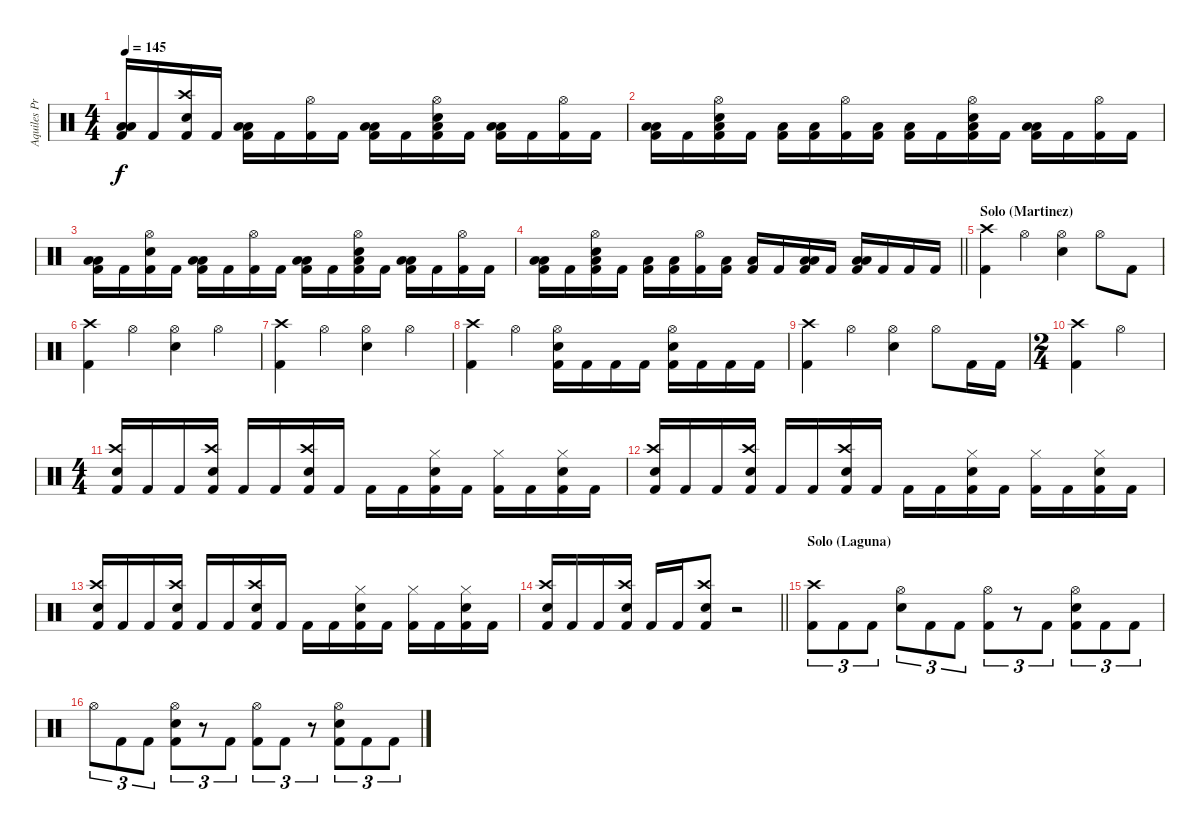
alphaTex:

\track ("Aquiles Priester" "Aquiles Pr") {instrument percussion}
\staff {score}
\articulation defaults
\ts (4 4)
\tempo 145
\clef neutral
\ks c
("Low Tom (hit)" "Low Floor Tom (hit)" "Kick (hit) 2").16{dy f} "Kick (hit) 2".16 ("Crash high (hit)" "Electric Snare (hit)" "Kick (hit) 2").16 "Kick (hit) 2".16 ("Low Tom (hit)" "Low Floor Tom (hit)" "Kick (hit) 2").16 "Kick (hit) 2".16 ("Hi-Hat (open)" "Kick (hit) 2").16 "Kick (hit) 2".16 ("Low Tom (hit)" "Low Floor Tom (hit)" "Kick (hit) 2").16 "Kick (hit) 2".16 ("Hi-Hat (open)" "Electric Snare (hit)" "Low Floor Tom (hit)" "Kick (hit) 2").16 "Kick (hit) 2".16 ("Low Tom (hit)" "Low Floor Tom (hit)" "Kick (hit) 2").16 "Kick (hit) 2".16 ("Hi-Hat (open)" "Kick (hit) 2").16 "Kick (hit) 2".16 |
("Low Tom (hit)" "Low Floor Tom (hit)" "Kick (hit) 2").16 "Kick (hit) 2".16 ("Hi-Hat (open)" "Electric Snare (hit)" "Low Floor Tom (hit)" "Kick (hit) 2").16 "Kick (hit) 2".16 ("Low Tom (hit)" "Kick (hit) 2").16 ("Low Floor Tom (hit)" "Kick (hit) 2").16 ("Hi-Hat (open)" "Kick (hit) 2").16 ("Low Tom (hit)" "Kick (hit) 2").16 ("Low Floor Tom (hit)" "Kick (hit) 2").16 "Kick (hit) 2".16 ("Hi-Hat (open)" "Electric Snare (hit)" "Low Floor Tom (hit)" "Kick (hit) 2").16 "Kick (hit) 2".16 ("Low Tom (hit)" "Low Floor Tom (hit)" "Kick (hit) 2").16 "Kick (hit) 2".16 ("Hi-Hat (open)" "Kick (hit) 2").16 "Kick (hit) 2".16 |
("Low Tom (hit)" "Low Floor Tom (hit)" "Kick (hit) 2").16 "Kick (hit) 2".16 ("Hi-Hat (open)" "Electric Snare (hit)" "Kick (hit) 2").16 "Kick (hit) 2".16 ("Low Tom (hit)" "Low Floor Tom (hit)" "Kick (hit) 2").16 "Kick (hit) 2".16 ("Hi-Hat (open)" "Kick (hit) 2").16 "Kick (hit) 2".16 ("Low Tom (hit)" "Low Floor Tom (hit)" "Kick (hit) 2").16 "Kick (hit) 2".16 ("Hi-Hat (open)" "Electric Snare (hit)" "Low Floor Tom (hit)" "Kick (hit) 2").16 "Kick (hit) 2".16 ("Low Tom (hit)" "Low Floor Tom (hit)" "Kick (hit) 2").16 "Kick (hit) 2".16 ("Hi-Hat (open)" "Kick (hit) 2").16 "Kick (hit) 2".16 |
\barLineRight lightlight
("Low Tom (hit)" "Low Floor Tom (hit)" "Kick (hit) 2").16 "Kick (hit) 2".16 ("Hi-Hat (open)" "Electric Snare (hit)" "Low Floor Tom (hit)" "Kick (hit) 2").16 "Kick (hit) 2".16 ("Low Tom (hit)" "Kick (hit) 2").16 ("Low Floor Tom (hit)" "Kick (hit) 2").16 ("Hi-Hat (open)" "Kick (hit) 2").16 ("Low Tom (hit)" "Kick (hit) 2").16 ("Low Floor Tom (hit)" "Kick (hit) 2").16 "Kick (hit) 2".16 ("Low Tom (hit)" "Low Floor Tom (hit)" "Kick (hit) 2").16 "Kick (hit) 2".16 ("Low Tom (hit)" "Low Floor Tom (hit)" "Kick (hit) 2").16 "Kick (hit) 2".16 "Kick (hit) 2".16 "Kick (hit) 2".16 |
\section ("" "Solo (Martinez)")
("Crash high (hit)" "Kick (hit) 2").4 "Hi-Hat (open)".4 ("Hi-Hat (open)" "Electric Snare (hit)").4 "Hi-Hat (open)".8 "Kick (hit) 2".8 |
("Crash high (hit)" "Kick (hit) 2").4 "Hi-Hat (open)".4 ("Hi-Hat (open)" "Electric Snare (hit)").4 "Hi-Hat (open)".4 |
("Crash high (hit)" "Kick (hit) 2").4 "Hi-Hat (open)".4 ("Hi-Hat (open)" "Electric Snare (hit)").4 "Hi-Hat (open)".4 |
("Crash high (hit)" "Kick (hit) 2").4 "Hi-Hat (open)".4 ("Hi-Hat (open)" "Electric Snare (hit)" "Kick (hit) 2").16 "Kick (hit) 2".16 "Kick (hit) 2".16 "Kick (hit) 2".16 ("Hi-Hat (open)" "Electric Snare (hit)" "Kick (hit) 2").16 "Kick (hit) 2".16 "Kick (hit) 2".16 "Kick (hit) 2".16 |
("Crash high (hit)" "Kick (hit) 2").4 "Hi-Hat (open)".4 ("Hi-Hat (open)" "Electric Snare (hit)").4 "Hi-Hat (open)".8 "Kick (hit) 2".16 "Kick (hit) 2".16 |
\ts (2 4)
("Crash high (hit)" "Kick (hit) 2").4 "Hi-Hat (open)".4 |
\ts (4 4)
("Crash high (hit)" "Electric Snare (hit)" "Kick (hit) 2").16 "Kick (hit) 2".16 "Kick (hit) 2".16 ("Crash high (hit)" "Electric Snare (hit)" "Kick (hit) 2").16 "Kick (hit) 2".16 "Kick (hit) 2".16 ("Crash high (hit)" "Electric Snare (hit)" "Kick (hit) 2").16 "Kick (hit) 2".16 "Kick (hit) 2".16 "Kick (hit) 2".16 ("Hi-Hat (closed)" "Electric Snare (hit)" "Kick (hit) 2").16 "Kick (hit) 2".16 ("Hi-Hat (closed)" "Kick (hit) 2").16 "Kick (hit) 2".16 ("Hi-Hat (closed)" "Electric Snare (hit)" "Kick (hit) 2").16 "Kick (hit) 2".16 |
("Crash high (hit)" "Electric Snare (hit)" "Kick (hit) 2").16 "Kick (hit) 2".16 "Kick (hit) 2".16 ("Crash high (hit)" "Electric Snare (hit)" "Kick (hit) 2").16 "Kick (hit) 2".16 "Kick (hit) 2".16 ("Crash high (hit)" "Electric Snare (hit)" "Kick (hit) 2").16 "Kick (hit) 2".16 "Kick (hit) 2".16 "Kick (hit) 2".16 ("Hi-Hat (closed)" "Electric Snare (hit)" "Kick (hit) 2").16 "Kick (hit) 2".16 ("Hi-Hat (closed)" "Kick (hit) 2").16 "Kick (hit) 2".16 ("Hi-Hat (closed)" "Electric Snare (hit)" "Kick (hit) 2").16 "Kick (hit) 2".16 |
("Crash high (hit)" "Electric Snare (hit)" "Kick (hit) 2").16 "Kick (hit) 2".16 "Kick (hit) 2".16 ("Crash high (hit)" "Electric Snare (hit)" "Kick (hit) 2").16 "Kick (hit) 2".16 "Kick (hit) 2".16 ("Crash high (hit)" "Electric Snare (hit)" "Kick (hit) 2").16 "Kick (hit) 2".16 "Kick (hit) 2".16 "Kick (hit) 2".16 ("Hi-Hat (closed)" "Electric Snare (hit)" "Kick (hit) 2").16 "Kick (hit) 2".16 ("Hi-Hat (closed)" "Kick (hit) 2").16 "Kick (hit) 2".16 ("Hi-Hat (closed)" "Electric Snare (hit)" "Kick (hit) 2").16 "Kick (hit) 2".16 |
\barLineRight lightlight
("Crash high (hit)" "Electric Snare (hit)" "Kick (hit) 2").16 "Kick (hit) 2".16 "Kick (hit) 2".16 ("Crash high (hit)" "Electric Snare (hit)" "Kick (hit) 2").16 "Kick (hit) 2".16 "Kick (hit) 2".16 ("Crash high (hit)" "Electric Snare (hit)" "Kick (hit) 2").8 r.2 |
\section ("" "Solo (Laguna)")
("Crash high (hit)" "Kick (hit) 2").8{tu (3 2)} "Kick (hit) 2".8{tu (3 2)} "Kick (hit) 2".8{tu (3 2)} ("Hi-Hat (open)" "Electric Snare (hit)").8{tu (3 2)} "Kick (hit) 2".8{tu (3 2)} "Kick (hit) 2".8{tu (3 2)} ("Hi-Hat (open)" "Kick (hit) 2").8{tu (3 2)} r.8{tu (3 2)} "Kick (hit) 2".8{tu (3 2)} ("Hi-Hat (open)" "Electric Snare (hit)" "Kick (hit) 2").8{tu (3 2)} "Kick (hit) 2".8{tu (3 2)} "Kick (hit) 2".8{tu (3 2)} |
"Hi-Hat (open)".8{tu (3 2)} "Kick (hit) 2".8{tu (3 2)} "Kick (hit) 2".8{tu (3 2)} ("Hi-Hat (open)" "Electric Snare (hit)" "Kick (hit) 2").8{tu (3 2)} r.8{tu (3 2)} "Kick (hit) 2".8{tu (3 2)} ("Hi-Hat (open)" "Kick (hit) 2").8{tu (3 2)} "Kick (hit) 2".8{tu (3 2)} r.8{tu (3 2)} ("Hi-Hat (open)" "Electric Snare (hit)" "Kick (hit) 2").8{tu (3 2)} "Kick (hit) 2".8{tu (3 2)} "Kick (hit) 2".8{tu (3 2)}
